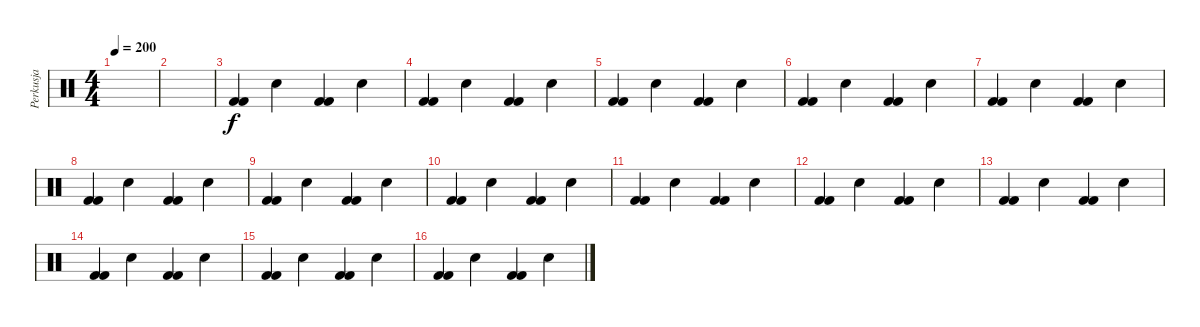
\track ("Perkusja" "Perkusja") {instrument percussion}
\staff {score}
\articulation defaults
\ts (4 4)
\tempo 200
\clef neutral
\ks c
|
|
("Kick (hit) 2" "Kick (hit) 2").4 "Snare (hit) 2".4 ("Kick (hit) 2" "Kick (hit) 2").4 "Snare (hit) 2".4 |
("Kick (hit) 2" "Kick (hit) 2").4 "Snare (hit) 2".4 ("Kick (hit) 2" "Kick (hit) 2").4 "Snare (hit) 2".4 |
("Kick (hit) 2" "Kick (hit) 2").4 "Snare (hit) 2".4 ("Kick (hit) 2" "Kick (hit) 2").4 "Snare (hit) 2".4 |
("Kick (hit) 2" "Kick (hit) 2").4 "Snare (hit) 2".4 ("Kick (hit) 2" "Kick (hit) 2").4 "Snare (hit) 2".4 |
("Kick (hit) 2" "Kick (hit) 2").4 "Snare (hit) 2".4 ("Kick (hit) 2" "Kick (hit) 2").4 "Snare (hit) 2".4 |
("Kick (hit) 2" "Kick (hit) 2").4 "Snare (hit) 2".4 ("Kick (hit) 2" "Kick (hit) 2").4 "Snare (hit) 2".4 |
("Kick (hit) 2" "Kick (hit) 2").4 "Snare (hit) 2".4 ("Kick (hit) 2" "Kick (hit) 2").4 "Snare (hit) 2".4 |
("Kick (hit) 2" "Kick (hit) 2").4 "Snare (hit) 2".4 ("Kick (hit) 2" "Kick (hit) 2").4 "Snare (hit) 2".4 |
("Kick (hit) 2" "Kick (hit) 2").4 "Snare (hit) 2".4 ("Kick (hit) 2" "Kick (hit) 2").4 "Snare (hit) 2".4 |
("Kick (hit) 2" "Kick (hit) 2").4 "Snare (hit) 2".4 ("Kick (hit) 2" "Kick (hit) 2").4 "Snare (hit) 2".4 |
("Kick (hit) 2" "Kick (hit) 2").4 "Snare (hit) 2".4 ("Kick (hit) 2" "Kick (hit) 2").4 "Snare (hit) 2".4 |
("Kick (hit) 2" "Kick (hit) 2").4 "Snare (hit) 2".4 ("Kick (hit) 2" "Kick (hit) 2").4 "Snare (hit) 2".4 |
("Kick (hit) 2" "Kick (hit) 2").4 "Snare (hit) 2".4 ("Kick (hit) 2" "Kick (hit) 2").4 "Snare (hit) 2".4 |
("Kick (hit) 2" "Kick (hit) 2").4 "Snare (hit) 2".4 ("Kick (hit) 2" "Kick (hit) 2").4 "Snare (hit) 2".4
